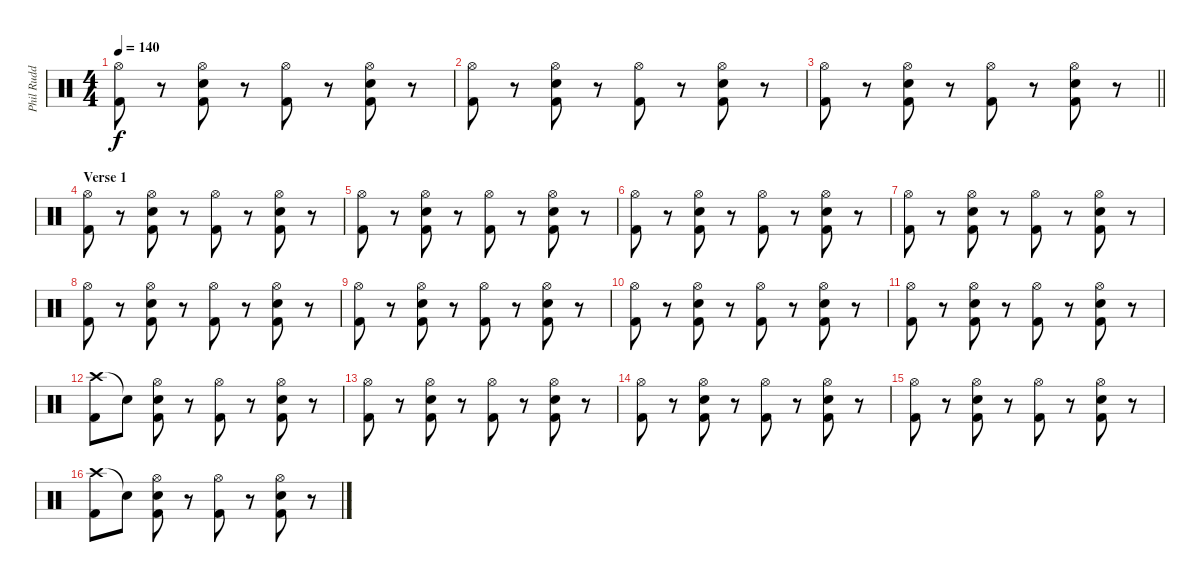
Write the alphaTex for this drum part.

\track ("Phil Rudd" "Phil Rudd") {instrument percussion}
\staff {score}
\articulation defaults
\ts (4 4)
\tempo 140
\clef neutral
\ks c
("Hi-Hat (open)" "Kick (hit) 2").8{dy f} r.8 ("Hi-Hat (open)" "Electric Snare (hit)" "Kick (hit) 2").8 r.8 ("Hi-Hat (open)" "Kick (hit) 2").8 r.8 ("Hi-Hat (open)" "Electric Snare (hit)" "Kick (hit) 2").8 r.8 |
("Hi-Hat (open)" "Kick (hit) 2").8 r.8 ("Hi-Hat (open)" "Electric Snare (hit)" "Kick (hit) 2").8 r.8 ("Hi-Hat (open)" "Kick (hit) 2").8 r.8 ("Hi-Hat (open)" "Electric Snare (hit)" "Kick (hit) 2").8 r.8 |
\barLineRight lightlight
("Hi-Hat (open)" "Kick (hit) 2").8 r.8 ("Hi-Hat (open)" "Electric Snare (hit)" "Kick (hit) 2").8 r.8 ("Hi-Hat (open)" "Kick (hit) 2").8 r.8 ("Hi-Hat (open)" "Electric Snare (hit)" "Kick (hit) 2").8 r.8 |
\section ("" "Verse 1")
("Hi-Hat (open)" "Kick (hit) 2").8 r.8 ("Hi-Hat (open)" "Electric Snare (hit)" "Kick (hit) 2").8 r.8 ("Hi-Hat (open)" "Kick (hit) 2").8 r.8 ("Hi-Hat (open)" "Electric Snare (hit)" "Kick (hit) 2").8 r.8 |
("Hi-Hat (open)" "Kick (hit) 2").8 r.8 ("Hi-Hat (open)" "Electric Snare (hit)" "Kick (hit) 2").8 r.8 ("Hi-Hat (open)" "Kick (hit) 2").8 r.8 ("Hi-Hat (open)" "Electric Snare (hit)" "Kick (hit) 2").8 r.8 |
("Hi-Hat (open)" "Kick (hit) 2").8 r.8 ("Hi-Hat (open)" "Electric Snare (hit)" "Kick (hit) 2").8 r.8 ("Hi-Hat (open)" "Kick (hit) 2").8 r.8 ("Hi-Hat (open)" "Electric Snare (hit)" "Kick (hit) 2").8 r.8 |
("Hi-Hat (open)" "Kick (hit) 2").8 r.8 ("Hi-Hat (open)" "Electric Snare (hit)" "Kick (hit) 2").8 r.8 ("Hi-Hat (open)" "Kick (hit) 2").8 r.8 ("Hi-Hat (open)" "Electric Snare (hit)" "Kick (hit) 2").8 r.8 |
("Hi-Hat (open)" "Kick (hit) 2").8 r.8 ("Hi-Hat (open)" "Electric Snare (hit)" "Kick (hit) 2").8 r.8 ("Hi-Hat (open)" "Kick (hit) 2").8 r.8 ("Hi-Hat (open)" "Electric Snare (hit)" "Kick (hit) 2").8 r.8 |
("Hi-Hat (open)" "Kick (hit) 2").8 r.8 ("Hi-Hat (open)" "Electric Snare (hit)" "Kick (hit) 2").8 r.8 ("Hi-Hat (open)" "Kick (hit) 2").8 r.8 ("Hi-Hat (open)" "Electric Snare (hit)" "Kick (hit) 2").8 r.8 |
("Hi-Hat (open)" "Kick (hit) 2").8 r.8 ("Hi-Hat (open)" "Electric Snare (hit)" "Kick (hit) 2").8 r.8 ("Hi-Hat (open)" "Kick (hit) 2").8 r.8 ("Hi-Hat (open)" "Electric Snare (hit)" "Kick (hit) 2").8 r.8 |
("Hi-Hat (open)" "Kick (hit) 2").8 r.8 ("Hi-Hat (open)" "Electric Snare (hit)" "Kick (hit) 2").8 r.8 ("Hi-Hat (open)" "Kick (hit) 2").8 r.8 ("Hi-Hat (open)" "Electric Snare (hit)" "Kick (hit) 2").8 r.8 |
("Crash high (hit)" "Kick (hit) 2").8 "Snare (hit)"{t}.8 ("Hi-Hat (open)" "Electric Snare (hit)" "Kick (hit) 2").8 r.8 ("Hi-Hat (open)" "Kick (hit) 2").8 r.8 ("Hi-Hat (open)" "Electric Snare (hit)" "Kick (hit) 2").8 r.8 |
("Hi-Hat (open)" "Kick (hit) 2").8 r.8 ("Hi-Hat (open)" "Electric Snare (hit)" "Kick (hit) 2").8 r.8 ("Hi-Hat (open)" "Kick (hit) 2").8 r.8 ("Hi-Hat (open)" "Electric Snare (hit)" "Kick (hit) 2").8 r.8 |
("Hi-Hat (open)" "Kick (hit) 2").8 r.8 ("Hi-Hat (open)" "Electric Snare (hit)" "Kick (hit) 2").8 r.8 ("Hi-Hat (open)" "Kick (hit) 2").8 r.8 ("Hi-Hat (open)" "Electric Snare (hit)" "Kick (hit) 2").8 r.8 |
("Hi-Hat (open)" "Kick (hit) 2").8 r.8 ("Hi-Hat (open)" "Electric Snare (hit)" "Kick (hit) 2").8 r.8 ("Hi-Hat (open)" "Kick (hit) 2").8 r.8 ("Hi-Hat (open)" "Electric Snare (hit)" "Kick (hit) 2").8 r.8 |
("Crash high (hit)" "Kick (hit) 2").8 "Snare (hit)"{t}.8 ("Hi-Hat (open)" "Electric Snare (hit)" "Kick (hit) 2").8 r.8 ("Hi-Hat (open)" "Kick (hit) 2").8 r.8 ("Hi-Hat (open)" "Electric Snare (hit)" "Kick (hit) 2").8 r.8
